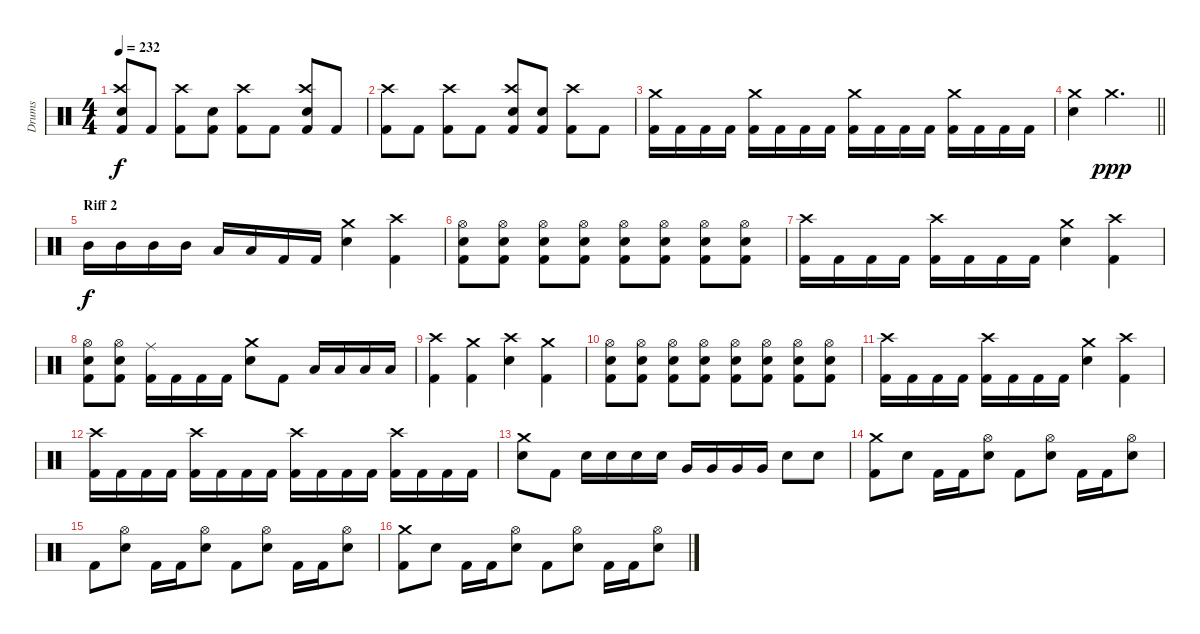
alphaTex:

\track ("Drums" "Drums") {instrument percussion}
\staff {score}
\articulation defaults
\ts (4 4)
\tempo 232
\clef neutral
\ks c
("Kick (hit) 2" "Crash high (hit)" "Electric Snare (hit)").8{dy f} "Kick (hit) 2".8 ("Kick (hit) 2" "Crash high (hit)").8 ("Kick (hit) 2" "Electric Snare (hit)").8 ("Kick (hit) 2" "Crash high (hit)").8 "Kick (hit) 2".8 ("Kick (hit) 2" "Crash high (hit)" "Electric Snare (hit)").8 "Kick (hit) 2".8 |
("Kick (hit) 2" "Crash high (hit)").8 "Kick (hit) 2".8 ("Kick (hit) 2" "Crash high (hit)").8 "Kick (hit) 2".8 ("Kick (hit) 2" "Crash high (hit)" "Electric Snare (hit)").8 ("Kick (hit) 2" "Electric Snare (hit)").8 ("Kick (hit) 2" "Crash high (hit)").8 "Kick (hit) 2".8 |
("Kick (hit) 2" "Crash medium (hit)").16 "Kick (hit) 2".16 "Kick (hit) 2".16 "Kick (hit) 2".16 ("Kick (hit) 2" "Crash medium (hit)").16 "Kick (hit) 2".16 "Kick (hit) 2".16 "Kick (hit) 2".16 ("Kick (hit) 2" "Crash medium (hit)").16 "Kick (hit) 2".16 "Kick (hit) 2".16 "Kick (hit) 2".16 ("Kick (hit) 2" "Crash medium (hit)").16 "Kick (hit) 2".16 "Kick (hit) 2".16 "Kick (hit) 2".16 |
\barLineRight lightlight
("Electric Snare (hit)" "Crash medium (hit)").4 "Crash medium (hit)".2{d dy ppp} |
\section ("" "Riff 2")
"Mid Tom (hit)".16{dy f} "Mid Tom (hit)".16 "Mid Tom (hit)".16 "Mid Tom (hit)".16 "Low Tom (hit)".16 "Low Tom (hit)".16 "Kick (hit) 2".16 "Kick (hit) 2".16 ("Crash medium (hit)" "Electric Snare (hit)").4 ("Crash high (hit)" "Kick (hit) 2").4 |
("Electric Snare (hit)" "Hi-Hat (open)" "Kick (hit) 2").8 ("Electric Snare (hit)" "Kick (hit) 2" "Hi-Hat (open)").8 ("Hi-Hat (open)" "Kick (hit) 2" "Electric Snare (hit)").8 ("Hi-Hat (open)" "Kick (hit) 2" "Electric Snare (hit)").8 ("Electric Snare (hit)" "Kick (hit) 2" "Hi-Hat (open)").8 ("Electric Snare (hit)" "Kick (hit) 2" "Hi-Hat (open)").8 ("Hi-Hat (open)" "Kick (hit) 2" "Electric Snare (hit)").8 ("Electric Snare (hit)" "Kick (hit) 2" "Hi-Hat (open)").8 |
("Kick (hit) 2" "Crash high (hit)").16 "Kick (hit) 2".16 "Kick (hit) 2".16 "Kick (hit) 2".16 ("Kick (hit) 2" "Crash high (hit)").16 "Kick (hit) 2".16 "Kick (hit) 2".16 "Kick (hit) 2".16 ("Crash medium (hit)" "Electric Snare (hit)").4 ("Crash high (hit)" "Kick (hit) 2").4 |
("Electric Snare (hit)" "Hi-Hat (open)" "Kick (hit) 2").8 ("Electric Snare (hit)" "Hi-Hat (open)" "Kick (hit) 2").8 ("Ride (middle)" "Kick (hit) 2").16 "Kick (hit) 2".16 "Kick (hit) 2".16 "Kick (hit) 2".16 ("Crash medium (hit)" "Electric Snare (hit)").8 "Kick (hit) 2".8 "Low Tom (hit)".16 "Low Tom (hit)".16 "Low Tom (hit)".16 "Low Tom (hit)".16 |
("Crash high (hit)" "Kick (hit) 2").4 ("Crash medium (hit)" "Kick (hit) 2").4 ("Crash high (hit)" "Electric Snare (hit)").4 ("Crash medium (hit)" "Kick (hit) 2").4 |
("Electric Snare (hit)" "Hi-Hat (open)" "Kick (hit) 2").8 ("Electric Snare (hit)" "Kick (hit) 2" "Hi-Hat (open)").8 ("Hi-Hat (open)" "Kick (hit) 2" "Electric Snare (hit)").8 ("Hi-Hat (open)" "Kick (hit) 2" "Electric Snare (hit)").8 ("Electric Snare (hit)" "Kick (hit) 2" "Hi-Hat (open)").8 ("Electric Snare (hit)" "Kick (hit) 2" "Hi-Hat (open)").8 ("Hi-Hat (open)" "Kick (hit) 2" "Electric Snare (hit)").8 ("Electric Snare (hit)" "Kick (hit) 2" "Hi-Hat (open)").8 |
("Kick (hit) 2" "Crash high (hit)").16 "Kick (hit) 2".16 "Kick (hit) 2".16 "Kick (hit) 2".16 ("Kick (hit) 2" "Crash high (hit)").16 "Kick (hit) 2".16 "Kick (hit) 2".16 "Kick (hit) 2".16 ("Crash medium (hit)" "Electric Snare (hit)").4 ("Crash high (hit)" "Kick (hit) 2").4 |
("Crash high (hit)" "Kick (hit) 2").16 "Kick (hit) 2".16 "Kick (hit) 2".16 "Kick (hit) 2".16 ("Crash high (hit)" "Kick (hit) 2").16 "Kick (hit) 2".16 "Kick (hit) 2".16 "Kick (hit) 2".16 ("Crash high (hit)" "Kick (hit) 2").16 "Kick (hit) 2".16 "Kick (hit) 2".16 "Kick (hit) 2".16 ("Crash high (hit)" "Kick (hit) 2").16 "Kick (hit) 2".16 "Kick (hit) 2".16 "Kick (hit) 2".16 |
("Electric Snare (hit)" "Crash medium (hit)").8 "Kick (hit) 2".8 "Electric Snare (hit)".16 "Electric Snare (hit)".16 "Electric Snare (hit)".16 "Electric Snare (hit)".16 "Very Low Tom (hit)".16 "Very Low Tom (hit)".16 "Very Low Tom (hit)".16 "Very Low Tom (hit)".16 "Electric Snare (hit)".8 "Electric Snare (hit)".8 |
("Kick (hit) 2" "Crash medium (hit)").8 "Electric Snare (hit)".8 "Kick (hit) 2".16 "Kick (hit) 2".16 ("Hi-Hat (open)" "Electric Snare (hit)").8 "Kick (hit) 2".8 ("Hi-Hat (open)" "Electric Snare (hit)").8 "Kick (hit) 2".16 "Kick (hit) 2".16 ("Hi-Hat (open)" "Electric Snare (hit)").8 |
"Kick (hit) 2".8 ("Hi-Hat (open)" "Electric Snare (hit)").8 "Kick (hit) 2".16 "Kick (hit) 2".16 ("Hi-Hat (open)" "Electric Snare (hit)").8 "Kick (hit) 2".8 ("Hi-Hat (open)" "Electric Snare (hit)").8 "Kick (hit) 2".16 "Kick (hit) 2".16 ("Hi-Hat (open)" "Electric Snare (hit)").8 |
("Kick (hit) 2" "Crash medium (hit)").8 "Electric Snare (hit)".8 "Kick (hit) 2".16 "Kick (hit) 2".16 ("Hi-Hat (open)" "Electric Snare (hit)").8 "Kick (hit) 2".8 ("Hi-Hat (open)" "Electric Snare (hit)").8 "Kick (hit) 2".16 "Kick (hit) 2".16 ("Hi-Hat (open)" "Electric Snare (hit)").8
